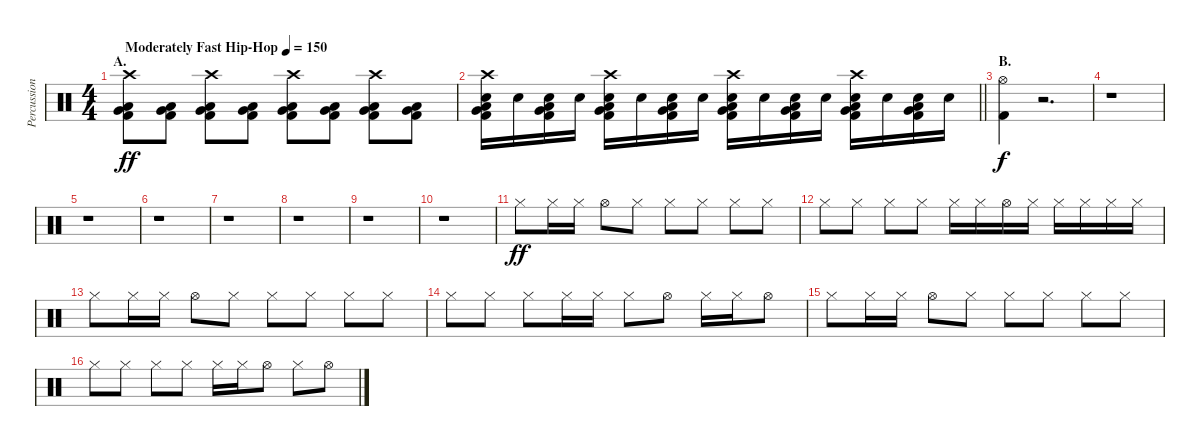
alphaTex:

\track ("Percussion" "Percussion") {instrument percussion}
\staff {score}
\articulation defaults
\ts (4 4)
\section ("" "A.")
\tempo (150 "Moderately Fast Hip-Hop")
\clef neutral
\ks c
("Crash high (hit)" "Very Low Tom (hit)" "Low Floor Tom (hit)" "Kick (hit) 2").8{dy ff} ("Very Low Tom (hit)" "Low Floor Tom (hit)" "Kick (hit) 2").8 ("Crash high (hit)" "Very Low Tom (hit)" "Low Floor Tom (hit)" "Kick (hit) 2").8 ("Very Low Tom (hit)" "Low Floor Tom (hit)" "Kick (hit) 2").8 ("Crash high (hit)" "Very Low Tom (hit)" "Low Floor Tom (hit)" "Kick (hit) 2").8 ("Very Low Tom (hit)" "Low Floor Tom (hit)" "Kick (hit) 2").8 ("Crash high (hit)" "Very Low Tom (hit)" "Low Floor Tom (hit)" "Kick (hit) 2").8 ("Very Low Tom (hit)" "Low Floor Tom (hit)" "Kick (hit) 2").8 |
\barLineRight lightlight
("Crash high (hit)" "Very Low Tom (hit)" "Electric Snare (hit)" "Low Floor Tom (hit)" "Kick (hit) 2").16 "Electric Snare (hit)".16 ("Very Low Tom (hit)" "Electric Snare (hit)" "Low Floor Tom (hit)" "Kick (hit) 2").16 "Electric Snare (hit)".16 ("Crash high (hit)" "Very Low Tom (hit)" "Electric Snare (hit)" "Low Floor Tom (hit)" "Kick (hit) 2").16 "Electric Snare (hit)".16 ("Very Low Tom (hit)" "Electric Snare (hit)" "Low Floor Tom (hit)" "Kick (hit) 2").16 "Electric Snare (hit)".16 ("Crash high (hit)" "Very Low Tom (hit)" "Electric Snare (hit)" "Low Floor Tom (hit)" "Kick (hit) 2").16 "Electric Snare (hit)".16 ("Very Low Tom (hit)" "Electric Snare (hit)" "Low Floor Tom (hit)" "Kick (hit) 2").16 "Electric Snare (hit)".16 ("Crash high (hit)" "Very Low Tom (hit)" "Electric Snare (hit)" "Low Floor Tom (hit)" "Kick (hit) 2").16 "Electric Snare (hit)".16 ("Very Low Tom (hit)" "Electric Snare (hit)" "Low Floor Tom (hit)" "Kick (hit) 2").16 "Electric Snare (hit)".16 |
\section ("" "B.")
("Hi-Hat (open)" "Kick (hit) 2").4{dy f} r.2{d} |
r.1 |
r.1 |
r.1 |
r.1 |
r.1 |
r.1 |
r.1 |
"Hi-Hat (closed)".8{dy ff} "Hi-Hat (closed)".16 "Hi-Hat (closed)".16 "Hi-Hat (open)".8 "Hi-Hat (closed)".8 "Hi-Hat (closed)".8 "Hi-Hat (closed)".8 "Hi-Hat (closed)".8 "Hi-Hat (closed)".8 |
"Hi-Hat (closed)".8 "Hi-Hat (closed)".8 "Hi-Hat (closed)".8 "Hi-Hat (closed)".8 "Hi-Hat (closed)".16 "Hi-Hat (closed)".16 "Hi-Hat (open)".16 "Hi-Hat (closed)".16 "Hi-Hat (closed)".16 "Hi-Hat (closed)".16 "Hi-Hat (closed)".16 "Hi-Hat (closed)".16 |
"Hi-Hat (closed)".8 "Hi-Hat (closed)".16 "Hi-Hat (closed)".16 "Hi-Hat (open)".8 "Hi-Hat (closed)".8 "Hi-Hat (closed)".8 "Hi-Hat (closed)".8 "Hi-Hat (closed)".8 "Hi-Hat (closed)".8 |
"Hi-Hat (closed)".8 "Hi-Hat (closed)".8 "Hi-Hat (closed)".8 "Hi-Hat (closed)".16 "Hi-Hat (closed)".16 "Hi-Hat (closed)".8 "Hi-Hat (open)".8 "Hi-Hat (closed)".16 "Hi-Hat (closed)".16 "Hi-Hat (open)".8 |
"Hi-Hat (closed)".8 "Hi-Hat (closed)".16 "Hi-Hat (closed)".16 "Hi-Hat (open)".8 "Hi-Hat (closed)".8 "Hi-Hat (closed)".8 "Hi-Hat (closed)".8 "Hi-Hat (closed)".8 "Hi-Hat (closed)".8 |
"Hi-Hat (closed)".8 "Hi-Hat (closed)".8 "Hi-Hat (closed)".8 "Hi-Hat (closed)".8 "Hi-Hat (closed)".16 "Hi-Hat (closed)".16 "Hi-Hat (open)".8 "Hi-Hat (closed)".8 "Hi-Hat (open)".8
